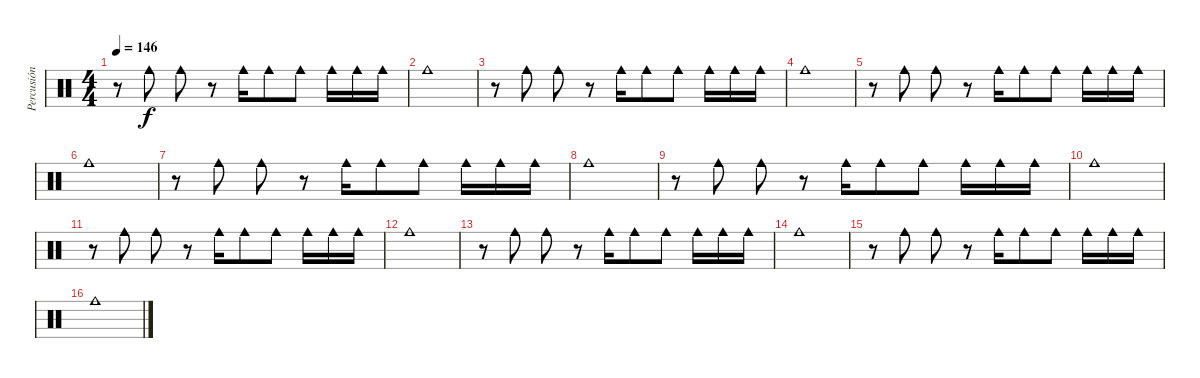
\track ("Percusión" "Percusión") {instrument percussion}
\staff {score}
\articulation defaults
\ts (4 4)
\tempo 146
\clef neutral
\ks c
r.8{dy f} "Cowbell medium (hit)".8 "Cowbell medium (hit)".8 r.8 "Cowbell medium (hit)".16 "Cowbell medium (hit)".8 "Cowbell medium (hit)".8 "Cowbell medium (hit)".16 "Cowbell medium (hit)".16 "Cowbell medium (hit)".16 |
"Cowbell medium (hit)".1 |
r.8 "Cowbell medium (hit)".8 "Cowbell medium (hit)".8 r.8 "Cowbell medium (hit)".16 "Cowbell medium (hit)".8 "Cowbell medium (hit)".8 "Cowbell medium (hit)".16 "Cowbell medium (hit)".16 "Cowbell medium (hit)".16 |
"Cowbell medium (hit)".1 |
r.8 "Cowbell medium (hit)".8 "Cowbell medium (hit)".8 r.8 "Cowbell medium (hit)".16 "Cowbell medium (hit)".8 "Cowbell medium (hit)".8 "Cowbell medium (hit)".16 "Cowbell medium (hit)".16 "Cowbell medium (hit)".16 |
"Cowbell medium (hit)".1 |
r.8 "Cowbell medium (hit)".8 "Cowbell medium (hit)".8 r.8 "Cowbell medium (hit)".16 "Cowbell medium (hit)".8 "Cowbell medium (hit)".8 "Cowbell medium (hit)".16 "Cowbell medium (hit)".16 "Cowbell medium (hit)".16 |
"Cowbell medium (hit)".1 |
r.8 "Cowbell medium (hit)".8 "Cowbell medium (hit)".8 r.8 "Cowbell medium (hit)".16 "Cowbell medium (hit)".8 "Cowbell medium (hit)".8 "Cowbell medium (hit)".16 "Cowbell medium (hit)".16 "Cowbell medium (hit)".16 |
"Cowbell medium (hit)".1 |
r.8 "Cowbell medium (hit)".8 "Cowbell medium (hit)".8 r.8 "Cowbell medium (hit)".16 "Cowbell medium (hit)".8 "Cowbell medium (hit)".8 "Cowbell medium (hit)".16 "Cowbell medium (hit)".16 "Cowbell medium (hit)".16 |
"Cowbell medium (hit)".1 |
r.8 "Cowbell medium (hit)".8 "Cowbell medium (hit)".8 r.8 "Cowbell medium (hit)".16 "Cowbell medium (hit)".8 "Cowbell medium (hit)".8 "Cowbell medium (hit)".16 "Cowbell medium (hit)".16 "Cowbell medium (hit)".16 |
"Cowbell medium (hit)".1 |
r.8 "Cowbell medium (hit)".8 "Cowbell medium (hit)".8 r.8 "Cowbell medium (hit)".16 "Cowbell medium (hit)".8 "Cowbell medium (hit)".8 "Cowbell medium (hit)".16 "Cowbell medium (hit)".16 "Cowbell medium (hit)".16 |
"Cowbell medium (hit)".1
